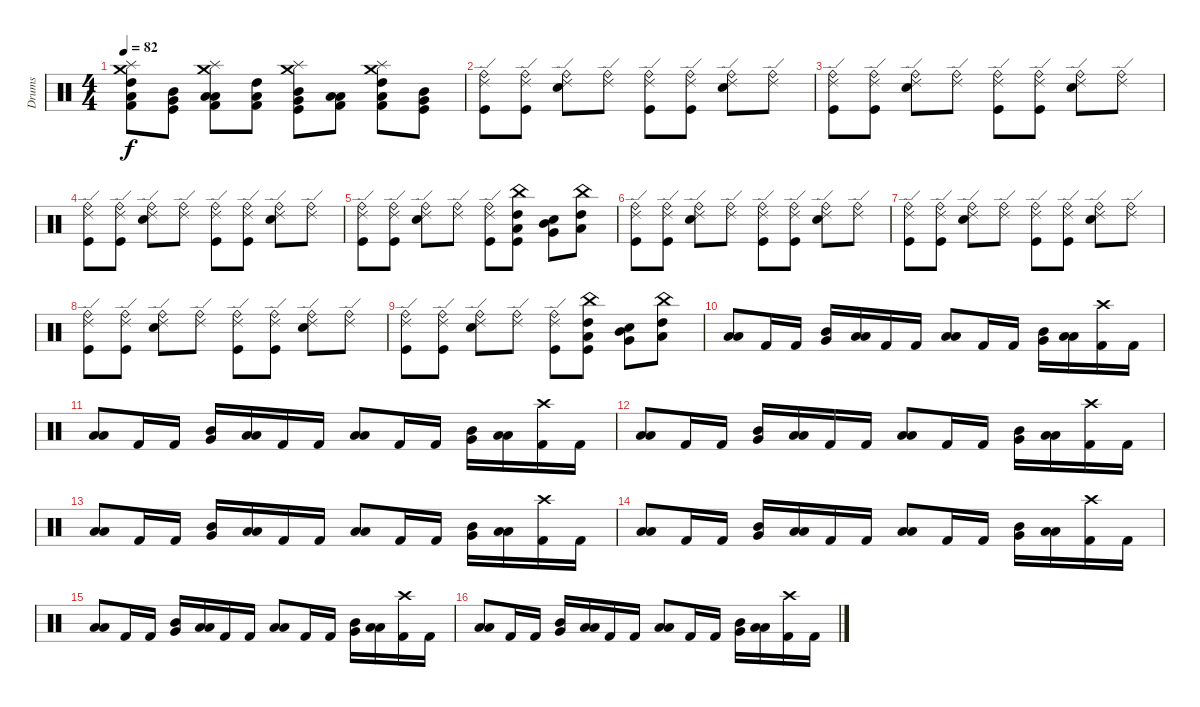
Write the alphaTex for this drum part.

\track ("Drums" "Drums") {instrument percussion}
\staff {score}
\articulation defaults
\ts (4 4)
\tempo 82
\clef neutral
\ks c
("Splash (hit)" "Low Tom (hit)" "High Tom (hit)" "Kick (hit) 2" "Crash medium (hit)").8{dy f} ("Very Low Tom (hit)" "Mid Tom (hit)" "Kick (hit)").8 ("Low Floor Tom (hit)" "Low Tom (hit)" "Splash (hit)" "Kick (hit) 2" "Crash medium (hit)").8 ("Low Tom (hit)" "High Tom (hit)" "Kick (hit) 2").8 ("Very Low Tom (hit)" "Mid Tom (hit)" "Kick (hit)" "Crash medium (hit)" "Splash (hit)").8 ("Low Floor Tom (hit)" "Low Tom (hit)" "Kick (hit) 2").8 ("Kick (hit) 2" "High Tom (hit)" "Low Tom (hit)" "Splash (hit)" "Crash medium (hit)").8 ("Very Low Tom (hit)" "Mid Tom (hit)" "Kick (hit)").8 |
("Ride (edge) 2" "Ride (bell)" "Kick (hit)").8 ("Kick (hit)" "Ride (bell)" "Ride (edge) 2").8 ("Snare (hit) 2" "Ride (bell)" "Ride (edge) 2").8 ("Ride (bell)" "Ride (edge) 2").8 ("Kick (hit)" "Ride (bell)" "Ride (edge) 2").8 ("Kick (hit)" "Ride (bell)" "Ride (edge) 2").8 ("Snare (hit) 2" "Ride (bell)" "Ride (edge) 2").8 ("Ride (bell)" "Ride (edge) 2").8 |
("Ride (edge) 2" "Ride (bell)" "Kick (hit)").8 ("Kick (hit)" "Ride (bell)" "Ride (edge) 2").8 ("Snare (hit) 2" "Ride (bell)" "Ride (edge) 2").8 ("Ride (bell)" "Ride (edge) 2").8 ("Kick (hit)" "Ride (bell)" "Ride (edge) 2").8 ("Kick (hit)" "Ride (bell)" "Ride (edge) 2").8 ("Snare (hit) 2" "Ride (bell)" "Ride (edge) 2").8 ("Ride (bell)" "Ride (edge) 2").8 |
("Ride (edge) 2" "Ride (bell)" "Kick (hit)").8 ("Kick (hit)" "Ride (bell)" "Ride (edge) 2").8 ("Snare (hit) 2" "Ride (bell)" "Ride (edge) 2").8 ("Ride (bell)" "Ride (edge) 2").8 ("Kick (hit)" "Ride (bell)" "Ride (edge) 2").8 ("Kick (hit)" "Ride (bell)" "Ride (edge) 2").8 ("Snare (hit) 2" "Ride (bell)" "Ride (edge) 2").8 ("Ride (bell)" "Ride (edge) 2").8 |
("Ride (edge) 2" "Ride (bell)" "Kick (hit)").8 ("Kick (hit)" "Ride (bell)" "Ride (edge) 2").8 ("Snare (hit) 2" "Ride (bell)" "Ride (edge) 2").8 ("Ride (bell)" "Ride (edge) 2").8 ("Kick (hit)" "Ride (bell)" "Ride (edge) 2").8 ("Kick (hit)" "High Tom (hit)" "Low Tom (hit)" "China (hit)").8 ("Snare (hit) 2" "Very Low Tom (hit)" "Mid Tom (hit)").8 ("Low Tom (hit)" "High Tom (hit)" "China (hit)").8 |
("Ride (edge) 2" "Ride (bell)" "Kick (hit)").8 ("Kick (hit)" "Ride (bell)" "Ride (edge) 2").8 ("Snare (hit) 2" "Ride (bell)" "Ride (edge) 2").8 ("Ride (bell)" "Ride (edge) 2").8 ("Kick (hit)" "Ride (bell)" "Ride (edge) 2").8 ("Kick (hit)" "Ride (bell)" "Ride (edge) 2").8 ("Snare (hit) 2" "Ride (bell)" "Ride (edge) 2").8 ("Ride (bell)" "Ride (edge) 2").8 |
("Ride (edge) 2" "Ride (bell)" "Kick (hit)").8 ("Kick (hit)" "Ride (bell)" "Ride (edge) 2").8 ("Snare (hit) 2" "Ride (bell)" "Ride (edge) 2").8 ("Ride (bell)" "Ride (edge) 2").8 ("Kick (hit)" "Ride (bell)" "Ride (edge) 2").8 ("Kick (hit)" "Ride (bell)" "Ride (edge) 2").8 ("Snare (hit) 2" "Ride (bell)" "Ride (edge) 2").8 ("Ride (bell)" "Ride (edge) 2").8 |
("Ride (edge) 2" "Ride (bell)" "Kick (hit)").8 ("Kick (hit)" "Ride (bell)" "Ride (edge) 2").8 ("Snare (hit) 2" "Ride (bell)" "Ride (edge) 2").8 ("Ride (bell)" "Ride (edge) 2").8 ("Kick (hit)" "Ride (bell)" "Ride (edge) 2").8 ("Kick (hit)" "Ride (bell)" "Ride (edge) 2").8 ("Snare (hit) 2" "Ride (bell)" "Ride (edge) 2").8 ("Ride (bell)" "Ride (edge) 2").8 |
("Ride (edge) 2" "Ride (bell)" "Kick (hit)").8 ("Kick (hit)" "Ride (bell)" "Ride (edge) 2").8 ("Snare (hit) 2" "Ride (bell)" "Ride (edge) 2").8 ("Ride (bell)" "Ride (edge) 2").8 ("Kick (hit)" "Ride (bell)" "Ride (edge) 2").8 ("Kick (hit)" "High Tom (hit)" "Low Tom (hit)" "China (hit)").8 ("Snare (hit) 2" "Very Low Tom (hit)" "Mid Tom (hit)").8 ("Low Tom (hit)" "High Tom (hit)" "China (hit)").8 |
("Low Floor Tom (hit)" "Low Tom (hit)").8 "Kick (hit) 2".16 "Kick (hit) 2".16 ("Mid Tom (hit)" "Very Low Tom (hit)").16 ("Low Floor Tom (hit)" "Low Tom (hit)").16 "Kick (hit) 2".16 "Kick (hit) 2".16 ("Low Tom (hit)" "Low Floor Tom (hit)").8 "Kick (hit) 2".16 "Kick (hit) 2".16 ("Mid Tom (hit)" "Very Low Tom (hit)").16 ("Low Floor Tom (hit)" "Low Tom (hit)").16 ("Kick (hit) 2" "Crash high (hit)").16 "Kick (hit) 2".16 |
("Low Floor Tom (hit)" "Low Tom (hit)").8 "Kick (hit) 2".16 "Kick (hit) 2".16 ("Mid Tom (hit)" "Very Low Tom (hit)").16 ("Low Floor Tom (hit)" "Low Tom (hit)").16 "Kick (hit) 2".16 "Kick (hit) 2".16 ("Low Tom (hit)" "Low Floor Tom (hit)").8 "Kick (hit) 2".16 "Kick (hit) 2".16 ("Mid Tom (hit)" "Very Low Tom (hit)").16 ("Low Floor Tom (hit)" "Low Tom (hit)").16 ("Kick (hit) 2" "Crash high (hit)").16 "Kick (hit) 2".16 |
("Low Floor Tom (hit)" "Low Tom (hit)").8 "Kick (hit) 2".16 "Kick (hit) 2".16 ("Mid Tom (hit)" "Very Low Tom (hit)").16 ("Low Floor Tom (hit)" "Low Tom (hit)").16 "Kick (hit) 2".16 "Kick (hit) 2".16 ("Low Tom (hit)" "Low Floor Tom (hit)").8 "Kick (hit) 2".16 "Kick (hit) 2".16 ("Mid Tom (hit)" "Very Low Tom (hit)").16 ("Low Floor Tom (hit)" "Low Tom (hit)").16 ("Kick (hit) 2" "Crash high (hit)").16 "Kick (hit) 2".16 |
("Low Floor Tom (hit)" "Low Tom (hit)").8 "Kick (hit) 2".16 "Kick (hit) 2".16 ("Mid Tom (hit)" "Very Low Tom (hit)").16 ("Low Floor Tom (hit)" "Low Tom (hit)").16 "Kick (hit) 2".16 "Kick (hit) 2".16 ("Low Tom (hit)" "Low Floor Tom (hit)").8 "Kick (hit) 2".16 "Kick (hit) 2".16 ("Mid Tom (hit)" "Very Low Tom (hit)").16 ("Low Floor Tom (hit)" "Low Tom (hit)").16 ("Kick (hit) 2" "Crash high (hit)").16 "Kick (hit) 2".16 |
("Low Floor Tom (hit)" "Low Tom (hit)").8 "Kick (hit) 2".16 "Kick (hit) 2".16 ("Mid Tom (hit)" "Very Low Tom (hit)").16 ("Low Floor Tom (hit)" "Low Tom (hit)").16 "Kick (hit) 2".16 "Kick (hit) 2".16 ("Low Tom (hit)" "Low Floor Tom (hit)").8 "Kick (hit) 2".16 "Kick (hit) 2".16 ("Mid Tom (hit)" "Very Low Tom (hit)").16 ("Low Floor Tom (hit)" "Low Tom (hit)").16 ("Kick (hit) 2" "Crash high (hit)").16 "Kick (hit) 2".16 |
("Low Floor Tom (hit)" "Low Tom (hit)").8 "Kick (hit) 2".16 "Kick (hit) 2".16 ("Mid Tom (hit)" "Very Low Tom (hit)").16 ("Low Floor Tom (hit)" "Low Tom (hit)").16 "Kick (hit) 2".16 "Kick (hit) 2".16 ("Low Tom (hit)" "Low Floor Tom (hit)").8 "Kick (hit) 2".16 "Kick (hit) 2".16 ("Mid Tom (hit)" "Very Low Tom (hit)").16 ("Low Floor Tom (hit)" "Low Tom (hit)").16 ("Kick (hit) 2" "Crash high (hit)").16 "Kick (hit) 2".16 |
("Low Floor Tom (hit)" "Low Tom (hit)").8 "Kick (hit) 2".16 "Kick (hit) 2".16 ("Mid Tom (hit)" "Very Low Tom (hit)").16 ("Low Floor Tom (hit)" "Low Tom (hit)").16 "Kick (hit) 2".16 "Kick (hit) 2".16 ("Low Tom (hit)" "Low Floor Tom (hit)").8 "Kick (hit) 2".16 "Kick (hit) 2".16 ("Mid Tom (hit)" "Very Low Tom (hit)").16 ("Low Floor Tom (hit)" "Low Tom (hit)").16 ("Kick (hit) 2" "Crash high (hit)").16 "Kick (hit) 2".16
